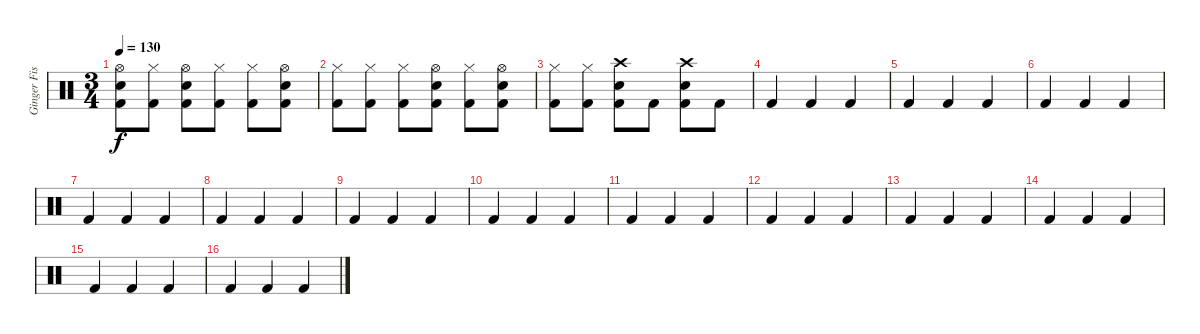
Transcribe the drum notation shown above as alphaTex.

\track ("Ginger Fish" "Ginger Fis") {instrument percussion}
\staff {score}
\articulation defaults
\ts (3 4)
\tempo 130
\clef neutral
\ks c
("Hi-Hat (open)" "Snare (hit) 2" "Kick (hit) 2").8{dy f} ("Hi-Hat (closed)" "Kick (hit) 2").8 ("Hi-Hat (open)" "Snare (hit) 2" "Kick (hit) 2").8 ("Hi-Hat (closed)" "Kick (hit) 2").8 ("Hi-Hat (closed)" "Kick (hit) 2").8 ("Hi-Hat (open)" "Snare (hit) 2" "Kick (hit) 2").8 |
("Hi-Hat (closed)" "Kick (hit) 2").8 ("Hi-Hat (closed)" "Kick (hit) 2").8 ("Hi-Hat (closed)" "Kick (hit) 2").8 ("Hi-Hat (open)" "Snare (hit) 2" "Kick (hit) 2").8 ("Hi-Hat (closed)" "Kick (hit) 2").8 ("Hi-Hat (open)" "Snare (hit) 2" "Kick (hit) 2").8 |
("Hi-Hat (closed)" "Kick (hit) 2").8 ("Hi-Hat (closed)" "Kick (hit) 2").8 ("Crash high (hit)" "Snare (hit) 2" "Kick (hit) 2").8 "Kick (hit) 2".8 ("Crash high (hit)" "Snare (hit) 2" "Kick (hit) 2").8 "Kick (hit) 2".8 |
"Kick (hit) 2".4 "Kick (hit) 2".4 "Kick (hit) 2".4 |
"Kick (hit) 2".4 "Kick (hit) 2".4 "Kick (hit) 2".4 |
"Kick (hit) 2".4 "Kick (hit) 2".4 "Kick (hit) 2".4 |
"Kick (hit) 2".4 "Kick (hit) 2".4 "Kick (hit) 2".4 |
"Kick (hit) 2".4 "Kick (hit) 2".4 "Kick (hit) 2".4 |
"Kick (hit) 2".4 "Kick (hit) 2".4 "Kick (hit) 2".4 |
"Kick (hit) 2".4 "Kick (hit) 2".4 "Kick (hit) 2".4 |
"Kick (hit) 2".4 "Kick (hit) 2".4 "Kick (hit) 2".4 |
"Kick (hit) 2".4 "Kick (hit) 2".4 "Kick (hit) 2".4 |
"Kick (hit) 2".4 "Kick (hit) 2".4 "Kick (hit) 2".4 |
"Kick (hit) 2".4 "Kick (hit) 2".4 "Kick (hit) 2".4 |
"Kick (hit) 2".4 "Kick (hit) 2".4 "Kick (hit) 2".4 |
"Kick (hit) 2".4 "Kick (hit) 2".4 "Kick (hit) 2".4
